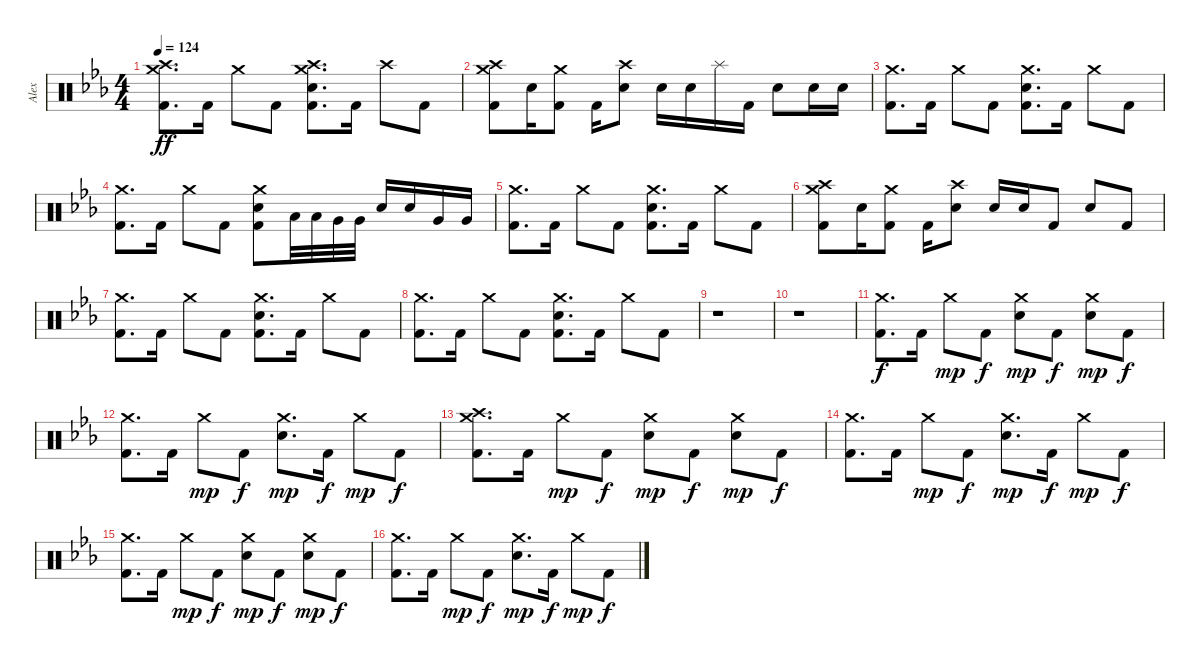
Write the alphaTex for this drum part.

\track ("Alex" "Alex") {instrument percussion}
\staff {score}
\articulation defaults
\ts (4 4)
\tempo 124
\clef neutral
\ks cminor
("Crash medium (hit)" "Crash high (hit)" "Kick (hit) 2").8{d dy ff} "Kick (hit) 2".16 "Crash medium (hit)".8 "Kick (hit) 2".8 ("Crash medium (hit)" "Crash high (hit)" "Electric Snare (hit)" "Kick (hit) 2").8{d} "Kick (hit) 2".16 "Crash high (hit)".8 "Kick (hit) 2".8 |
("Crash medium (hit)" "Crash high (hit)" "Kick (hit) 2").8 "Electric Snare (hit)".16 ("Crash medium (hit)" "Kick (hit) 2").8 "Kick (hit) 2".16 ("Crash high (hit)" "Electric Snare (hit)").8 "Electric Snare (hit)".16 "Electric Snare (hit)".16 "Splash (hit)".16 "Kick (hit) 2".16 "Electric Snare (hit)".8 "Electric Snare (hit)".16 "Electric Snare (hit)".16 |
("Crash medium (hit)" "Kick (hit) 2").8{d} "Kick (hit) 2".16 "Crash medium (hit)".8 "Kick (hit) 2".8 ("Crash medium (hit)" "Electric Snare (hit)" "Kick (hit) 2").8{d} "Kick (hit) 2".16 "Crash medium (hit)".8 "Kick (hit) 2".8 |
("Crash medium (hit)" "Kick (hit) 2").8{d} "Kick (hit) 2".16 "Crash medium (hit)".8 "Kick (hit) 2".8 ("Crash medium (hit)" "Electric Snare (hit)" "Kick (hit) 2").8 "Low Tom (hit)".32 "Low Tom (hit)".32 "Very Low Tom (hit)".32 "Very Low Tom (hit)".32 "Electric Snare (hit)".16 "Electric Snare (hit)".16 "Very Low Tom (hit)".16 "Very Low Tom (hit)".16 |
("Crash medium (hit)" "Kick (hit) 2").8{d} "Kick (hit) 2".16 "Crash medium (hit)".8 "Kick (hit) 2".8 ("Crash medium (hit)" "Electric Snare (hit)" "Kick (hit) 2").8{d} "Kick (hit) 2".16 "Crash medium (hit)".8 "Kick (hit) 2".8 |
("Crash medium (hit)" "Crash high (hit)" "Kick (hit) 2").8 "Electric Snare (hit)".16 ("Crash medium (hit)" "Kick (hit) 2").8 "Kick (hit) 2".16 ("Crash high (hit)" "Electric Snare (hit)").8 "Electric Snare (hit)".16 "Electric Snare (hit)".16 "Kick (hit) 2".8 "Electric Snare (hit)".8 "Kick (hit) 2".8 |
("Crash medium (hit)" "Kick (hit) 2").8{d} "Kick (hit) 2".16 "Crash medium (hit)".8 "Kick (hit) 2".8 ("Crash medium (hit)" "Electric Snare (hit)" "Kick (hit) 2").8{d} "Kick (hit) 2".16 "Crash medium (hit)".8 "Kick (hit) 2".8 |
("Crash medium (hit)" "Kick (hit) 2").8{d} "Kick (hit) 2".16 "Crash medium (hit)".8 "Kick (hit) 2".8 ("Crash medium (hit)" "Electric Snare (hit)" "Kick (hit) 2").8{d} "Kick (hit) 2".16 "Crash medium (hit)".8 "Kick (hit) 2".8 |
r.1 |
r.1 |
("Crash medium (hit)" "Kick (hit) 2").8{d dy f} "Kick (hit) 2".16 "Crash medium (hit)".8{dy mp} "Kick (hit) 2".8{dy f} ("Crash medium (hit)" "Electric Snare (hit)").8{dy mp} "Kick (hit) 2".8{dy f} ("Crash medium (hit)" "Electric Snare (hit)").8{dy mp} "Kick (hit) 2".8{dy f} |
("Crash medium (hit)" "Kick (hit) 2").8{d} "Kick (hit) 2".16 "Crash medium (hit)".8{dy mp} "Kick (hit) 2".8{dy f} ("Crash medium (hit)" "Electric Snare (hit)").8{d dy mp} "Kick (hit) 2".16{dy f} "Crash medium (hit)".8{dy mp} "Kick (hit) 2".8{dy f} |
("Crash high (hit)" "Crash medium (hit)" "Kick (hit) 2").8{d} "Kick (hit) 2".16 "Crash medium (hit)".8{dy mp} "Kick (hit) 2".8{dy f} ("Crash medium (hit)" "Electric Snare (hit)").8{dy mp} "Kick (hit) 2".8{dy f} ("Crash medium (hit)" "Electric Snare (hit)").8{dy mp} "Kick (hit) 2".8{dy f} |
("Crash medium (hit)" "Kick (hit) 2").8{d} "Kick (hit) 2".16 "Crash medium (hit)".8{dy mp} "Kick (hit) 2".8{dy f} ("Crash medium (hit)" "Electric Snare (hit)").8{d dy mp} "Kick (hit) 2".16{dy f} "Crash medium (hit)".8{dy mp} "Kick (hit) 2".8{dy f} |
("Crash medium (hit)" "Kick (hit) 2").8{d} "Kick (hit) 2".16 "Crash medium (hit)".8{dy mp} "Kick (hit) 2".8{dy f} ("Crash medium (hit)" "Electric Snare (hit)").8{dy mp} "Kick (hit) 2".8{dy f} ("Crash medium (hit)" "Electric Snare (hit)").8{dy mp} "Kick (hit) 2".8{dy f} |
("Crash medium (hit)" "Kick (hit) 2").8{d} "Kick (hit) 2".16 "Crash medium (hit)".8{dy mp} "Kick (hit) 2".8{dy f} ("Crash medium (hit)" "Electric Snare (hit)").8{d dy mp} "Kick (hit) 2".16{dy f} "Crash medium (hit)".8{dy mp} "Kick (hit) 2".8{dy f}
